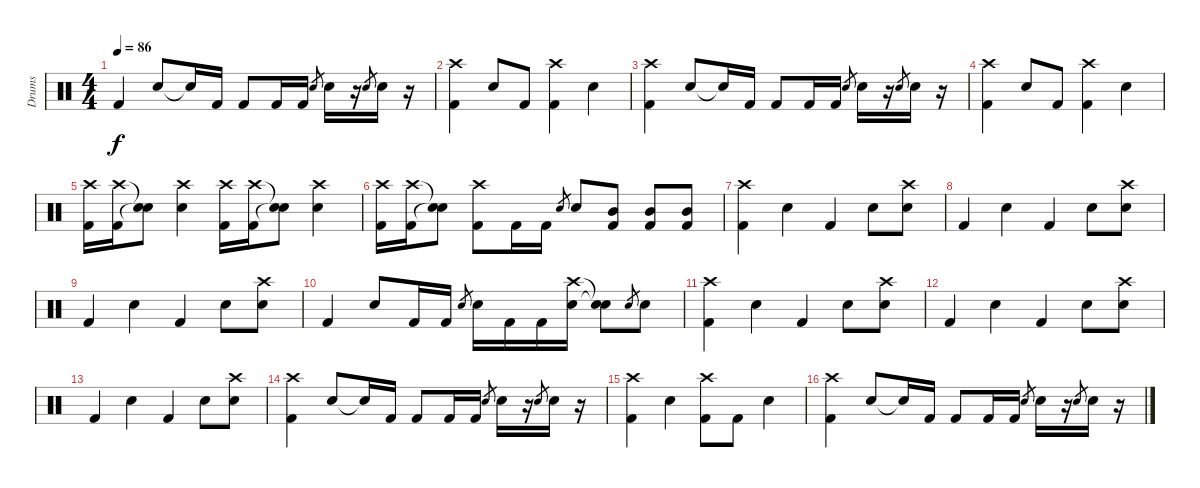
\track ("Drums" "Drums") {instrument percussion}
\staff {score}
\articulation defaults
\ts (4 4)
\tempo 86
\clef neutral
\ks c "Kick (hit) 2".4{dy f} "Electric Snare (hit)".8 "Snare (hit)"{t}.16 "Kick (hit) 2".16 "Kick (hit) 2".8 "Kick (hit) 2".16 "Kick (hit) 2".16 "Electric Snare (hit)".8{gr} "Electric Snare (hit)".16
r.16 "Electric Snare (hit)".8{gr} "Electric Snare (hit)".16 r.16 |
("Crash high (hit)" "Kick (hit) 2").4 "Electric Snare (hit)".8 "Kick (hit) 2".8 ("Crash high (hit)" "Kick (hit) 2").4 "Electric Snare (hit)".4 |
("Crash high (hit)" "Kick (hit) 2").4 "Electric Snare (hit)".8 "Snare (hit)"{t}.16 "Kick (hit) 2".16 "Kick (hit) 2".8 "Kick (hit) 2".16 "Kick (hit) 2".16 "Electric Snare (hit)".8{gr} "Electric Snare (hit)".16 r.16 "Electric Snare (hit)".8{gr} "Electric Snare (hit)".16 r.16 |
("Crash high (hit)" "Kick (hit) 2").4 "Electric Snare (hit)".8 "Kick (hit) 2".8 ("Crash high (hit)" "Kick (hit) 2").4 "Electric Snare (hit)".4 |
("Crash high (hit)" "Kick (hit) 2").16 ("Crash high (hit)" "Kick (hit) 2").16 ("Snare (hit)"{t} "Snare (hit)"{t}).8 ("Crash high (hit)" "Electric Snare (hit)").4 ("Crash high (hit)" "Kick (hit) 2").16 ("Crash high (hit)" "Kick (hit) 2").16 ("Snare (hit)"{t} "Snare (hit)"{t}).8 ("Crash high (hit)" "Electric Snare (hit)").4 |
("Crash high (hit)" "Kick (hit) 2").16 ("Crash high (hit)" "Kick (hit) 2").16 ("Snare (hit)"{t} "Snare (hit)"{t}).8 ("Crash high (hit)" "Kick (hit) 2").8 "Kick (hit) 2".16 "Kick (hit) 2".16 "Electric Snare (hit)".8{gr} "Electric Snare (hit)".8 ("Mid Tom (hit)" "Kick (hit) 2").8 ("Mid Tom (hit)" "Kick (hit) 2").8 ("Mid Tom (hit)" "Kick (hit) 2").8 |
("Crash high (hit)" "Kick (hit) 2").4 "Electric Snare (hit)".4 "Kick (hit) 2".4 "Electric Snare (hit)".8 ("Crash high (hit)" "Electric Snare (hit)").8 |
"Kick (hit) 2".4 "Electric Snare (hit)".4 "Kick (hit) 2".4 "Electric Snare (hit)".8 ("Crash high (hit)" "Electric Snare (hit)").8 |
"Kick (hit) 2".4 "Electric Snare (hit)".4 "Kick (hit) 2".4 "Electric Snare (hit)".8 ("Crash high (hit)" "Electric Snare (hit)").8 |
"Kick (hit) 2".4 "Electric Snare (hit)".8 "Kick (hit) 2".16 "Kick (hit) 2".16 "Electric Snare (hit)".8{gr} "Electric Snare (hit)".16 "Kick (hit) 2".16 "Kick (hit) 2".16 ("Crash high (hit)" "Electric Snare (hit)").16 ("Snare (hit)"{t} "Snare (hit)"{t}).8 "Electric Snare (hit)".8{gr} "Electric Snare (hit)".8 |
("Crash high (hit)" "Kick (hit) 2").4 "Electric Snare (hit)".4 "Kick (hit) 2".4 "Electric Snare (hit)".8 ("Crash high (hit)" "Electric Snare (hit)").8 |
"Kick (hit) 2".4 "Electric Snare (hit)".4 "Kick (hit) 2".4 "Electric Snare (hit)".8 ("Crash high (hit)" "Electric Snare (hit)").8 |
"Kick (hit) 2".4 "Electric Snare (hit)".4 "Kick (hit) 2".4 "Electric Snare (hit)".8 ("Crash high (hit)" "Electric Snare (hit)").8 |
("Crash high (hit)" "Kick (hit) 2").4 "Electric Snare (hit)".8 "Snare (hit)"{t}.16 "Kick (hit) 2".16 "Kick (hit) 2".8 "Kick (hit) 2".16 "Kick (hit) 2".16 "Electric Snare (hit)".8{gr} "Electric Snare (hit)".16 r.16 "Electric Snare (hit)".8{gr} "Electric Snare (hit)".16 r.16 |
("Crash high (hit)" "Kick (hit) 2").4 "Electric Snare (hit)".4 ("Crash high (hit)" "Kick (hit) 2").8 "Kick (hit) 2".8 "Electric Snare (hit)".4 |
("Crash high (hit)" "Kick (hit) 2").4 "Electric Snare (hit)".8 "Snare (hit)"{t}.16 "Kick (hit) 2".16 "Kick (hit) 2".8 "Kick (hit) 2".16 "Kick (hit) 2".16 "Electric Snare (hit)".8{gr} "Electric Snare (hit)".16 r.16 "Electric Snare (hit)".8{gr} "Electric Snare (hit)".16 r.16
